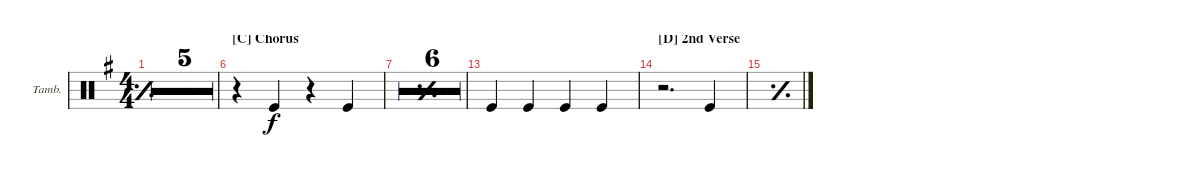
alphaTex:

\defaultSystemsLayout 4
\bracketExtendMode groupsimilarinstruments
\firstSystemTrackNameOrientation horizontal
\otherSystemsTrackNameOrientation horizontal
\track ("Tambourine" "Tamb.") {multiBarRest instrument percussion}
\staff {score}
\articulation defaults
\ts (4 4)
\tempo 90
\clef neutral
\simile simple
\ks g
|
\scale
0.346008 |
\scale
0.21673 |
\scale
0.222471 |
\simile none
\scale
0.214914 r.1 |
\section ("C" "Chorus")
\scale
0.473846 r.4 "Kick (hit)".4 r.4 "Kick (hit)".4 |
\simile simple
\scale
0.168197 |
\scale
0.163884 |
\scale
0.193625 |
\scale
0.274286 |
\scale
0.195456 |
\scale
0.172509 |
\simile none
\scale
0.35787 "Kick (hit)".4 "Kick (hit)".4 "Kick (hit)".4 "Kick (hit)".4 |
\section ("D" "2nd Verse")
\scale
0.38981 r.2{d} "Kick (hit)".4 |
\simile simple
\scale
0.248221 |
\scale
0.168027
